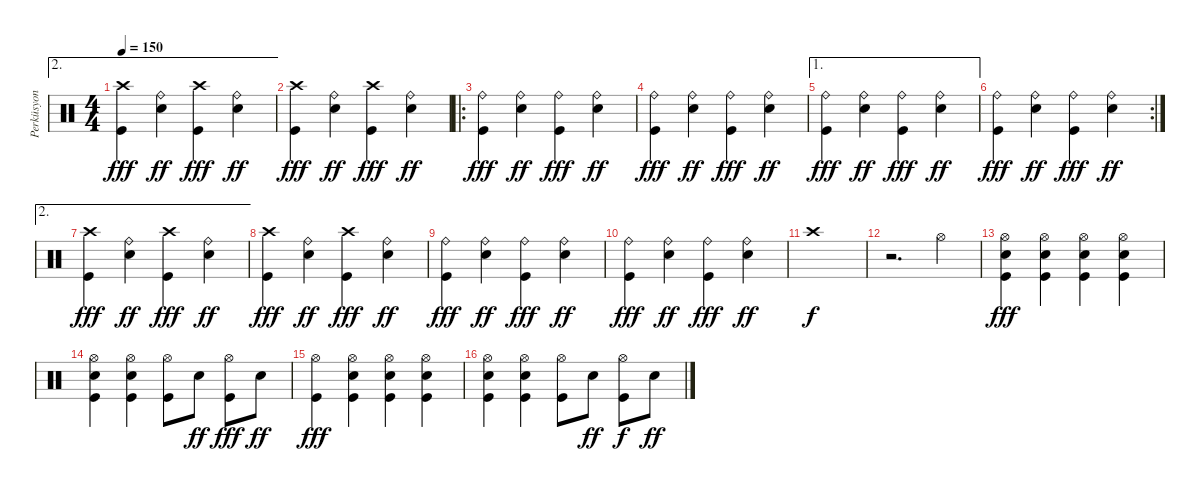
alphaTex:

\track ("Perküsyon" "Perküsyon") {instrument percussion}
\staff {score}
\articulation defaults
\ae 2
\ts (4 4)
\tempo 150
\clef neutral
\ks c
("Crash high (hit)" "Kick (hit)").4{dy fff} ("Ride (bell)" "Snare (hit) 2").4{dy ff} ("Crash high (hit)" "Kick (hit)").4{dy fff} ("Ride (bell)" "Snare (hit) 2").4{dy ff} |
("Crash high (hit)" "Kick (hit)").4{dy fff} ("Ride (bell)" "Snare (hit) 2").4{dy ff} ("Crash high (hit)" "Kick (hit)").4{dy fff} ("Ride (bell)" "Snare (hit) 2").4{dy ff} |
\ro
("Ride (bell)" "Kick (hit)").4{dy fff} ("Ride (bell)" "Snare (hit) 2").4{dy ff} ("Ride (bell)" "Kick (hit)").4{dy fff} ("Ride (bell)" "Snare (hit) 2").4{dy ff} |
("Ride (bell)" "Kick (hit)").4{dy fff} ("Ride (bell)" "Snare (hit) 2").4{dy ff} ("Ride (bell)" "Kick (hit)").4{dy fff} ("Ride (bell)" "Snare (hit) 2").4{dy ff} |
\ae 1
("Ride (bell)" "Kick (hit)").4{dy fff} ("Ride (bell)" "Snare (hit) 2").4{dy ff} ("Ride (bell)" "Kick (hit)").4{dy fff} ("Ride (bell)" "Snare (hit) 2").4{dy ff} |
\rc 2
("Ride (bell)" "Kick (hit)").4{dy fff} ("Ride (bell)" "Snare (hit) 2").4{dy ff} ("Ride (bell)" "Kick (hit)").4{dy fff} ("Ride (bell)" "Snare (hit) 2").4{dy ff} |
\ae 2
("Crash high (hit)" "Kick (hit)").4{dy fff} ("Ride (bell)" "Snare (hit) 2").4{dy ff} ("Crash high (hit)" "Kick (hit)").4{dy fff} ("Ride (bell)" "Snare (hit) 2").4{dy ff} |
("Crash high (hit)" "Kick (hit)").4{dy fff} ("Ride (bell)" "Snare (hit) 2").4{dy ff} ("Crash high (hit)" "Kick (hit)").4{dy fff} ("Ride (bell)" "Snare (hit) 2").4{dy ff} |
("Ride (bell)" "Kick (hit)").4{dy fff} ("Ride (bell)" "Snare (hit) 2").4{dy ff} ("Ride (bell)" "Kick (hit)").4{dy fff} ("Ride (bell)" "Snare (hit) 2").4{dy ff} |
("Ride (bell)" "Kick (hit)").4{dy fff} ("Ride (bell)" "Snare (hit) 2").4{dy ff} ("Ride (bell)" "Kick (hit)").4{dy fff} ("Ride (bell)" "Snare (hit) 2").4{dy ff} |
"Crash high (hit)".1{dy f} |
r.2{d} "Hi-Hat (open)".4 |
("Hi-Hat (open)" "Snare (hit) 2" "Kick (hit)").4{dy fff} ("Hi-Hat (open)" "Snare (hit) 2" "Kick (hit)").4 ("Hi-Hat (open)" "Snare (hit) 2" "Kick (hit)").4 ("Hi-Hat (open)" "Snare (hit) 2" "Kick (hit)").4 |
("Hi-Hat (open)" "Snare (hit) 2" "Kick (hit)").4 ("Hi-Hat (open)" "Snare (hit) 2" "Kick (hit)").4 ("Hi-Hat (open)" "Kick (hit)").8 "Snare (hit) 2".8{dy ff} ("Hi-Hat (open)" "Kick (hit)").8{dy fff} "Snare (hit) 2".8{dy ff} |
("Hi-Hat (open)" "Kick (hit)").4{dy fff} ("Hi-Hat (open)" "Snare (hit) 2" "Kick (hit)").4 ("Hi-Hat (open)" "Snare (hit) 2" "Kick (hit)").4 ("Hi-Hat (open)" "Snare (hit) 2" "Kick (hit)").4 |
("Hi-Hat (open)" "Snare (hit) 2" "Kick (hit)").4 ("Hi-Hat (open)" "Snare (hit) 2" "Kick (hit)").4 ("Hi-Hat (open)" "Kick (hit)").8 "Snare (hit) 2".8{dy ff} ("Hi-Hat (open)" "Kick (hit)").8{dy f} "Snare (hit) 2".8{dy ff}
